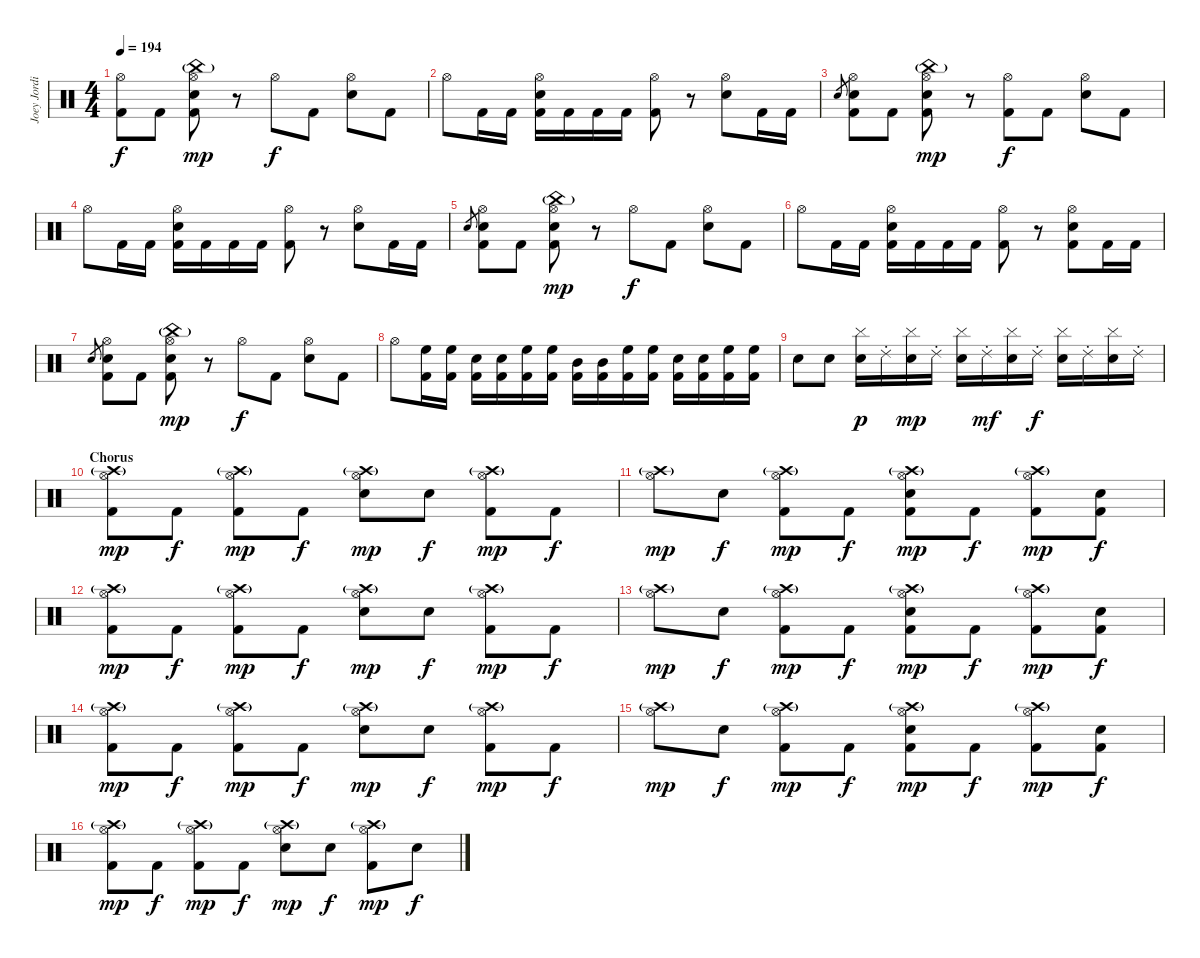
\track ("Joey Jordison" "Joey Jordi") {instrument percussion}
\staff {score}
\articulation defaults
\ts (4 4)
\tempo 194
\clef neutral
\ks c
("Hi-Hat (open)" "Kick (hit) 2").8{dy f} "Kick (hit) 2".8 ("Hi-Hat (open)" "China (hit)"{g} "Snare (hit) 2" "Kick (hit) 2").8{dy mp} r.8 "Hi-Hat (open)".8{dy f} "Kick (hit) 2".8 ("Hi-Hat (open)" "Snare (hit) 2").8 "Kick (hit) 2".8 |
"Hi-Hat (open)".8 "Kick (hit) 2".16 "Kick (hit) 2".16 ("Hi-Hat (open)" "Snare (hit) 2" "Kick (hit) 2").16 "Kick (hit) 2".16 "Kick (hit) 2".16 "Kick (hit) 2".16 ("Hi-Hat (open)" "Kick (hit) 2").8 r.8 ("Hi-Hat (open)" "Snare (hit) 2").8 "Kick (hit) 2".16 "Kick (hit) 2".16 |
"Snare (hit) 2".8{gr} ("Hi-Hat (open)" "Snare (hit)" "Kick (hit) 2").8 "Kick (hit) 2".8 ("Hi-Hat (open)" "China (hit)"{g} "Snare (hit) 2" "Kick (hit) 2").8{dy mp} r.8 ("Hi-Hat (open)" "Kick (hit) 2").8{dy f} "Kick (hit) 2".8 ("Hi-Hat (open)" "Snare (hit) 2").8 "Kick (hit) 2".8 |
"Hi-Hat (open)".8 "Kick (hit) 2".16 "Kick (hit) 2".16 ("Hi-Hat (open)" "Snare (hit) 2" "Kick (hit) 2").16 "Kick (hit) 2".16 "Kick (hit) 2".16 "Kick (hit) 2".16 ("Hi-Hat (open)" "Kick (hit) 2").8 r.8 ("Hi-Hat (open)" "Snare (hit) 2").8 "Kick (hit) 2".16 "Kick (hit) 2".16 |
"Snare (hit) 2".8{gr} ("Hi-Hat (open)" "Snare (hit)" "Kick (hit) 2").8 "Kick (hit) 2".8 ("Hi-Hat (open)" "China (hit)"{g} "Snare (hit) 2" "Kick (hit) 2").8{dy mp} r.8 "Hi-Hat (open)".8{dy f} "Kick (hit) 2".8 ("Hi-Hat (open)" "Snare (hit) 2").8 "Kick (hit) 2".8 |
"Hi-Hat (open)".8 "Kick (hit) 2".16 "Kick (hit) 2".16 ("Hi-Hat (open)" "Snare (hit) 2" "Kick (hit) 2").16 "Kick (hit) 2".16 "Kick (hit) 2".16 "Kick (hit) 2".16 ("Hi-Hat (open)" "Kick (hit) 2").8 r.8 ("Hi-Hat (open)" "Snare (hit) 2" "Kick (hit) 2").8 "Kick (hit) 2".16 "Kick (hit) 2".16 |
"Snare (hit) 2".8{gr} ("Hi-Hat (open)" "Snare (hit)" "Kick (hit) 2").8 "Kick (hit) 2".8 ("Hi-Hat (open)" "China (hit)"{g} "Snare (hit) 2" "Kick (hit) 2").8{dy mp} r.8 "Hi-Hat (open)".8{dy f} "Kick (hit) 2".8 ("Hi-Hat (open)" "Snare (hit) 2").8 "Kick (hit) 2".8 |
"Hi-Hat (open)".8 ("High Floor Tom (hit)" "Kick (hit) 2").16 ("High Floor Tom (hit)" "Kick (hit) 2").16 ("Snare (hit) 2" "Kick (hit) 2").16 ("Snare (hit) 2" "Kick (hit) 2").16 ("High Floor Tom (hit)" "Kick (hit) 2").16 ("High Floor Tom (hit)" "Kick (hit) 2").16 ("Mid Tom (hit)" "Kick (hit) 2").16 ("Mid Tom (hit)" "Kick (hit) 2").16 ("High Floor Tom (hit)" "Kick (hit) 2").16 ("High Floor Tom (hit)" "Kick (hit) 2").16 ("Snare (hit) 2" "Kick (hit) 2").16 ("Snare (hit) 2" "Kick (hit) 2").16 ("High Floor Tom (hit)" "Kick (hit) 2").16 ("High Floor Tom (hit)" "Kick (hit) 2").16 |
"Snare (hit) 2".8 "Snare (hit) 2".8 ("Cymbal (hit)" "Snare (hit) 2").16{dy p} "Ride (choke) 2".16 ("Cymbal (hit)" "Snare (hit) 2").16{dy mp} "Ride (choke) 2".16 ("Cymbal (hit)" "Snare (hit) 2").16 "Ride (choke) 2".16{dy mf} ("Cymbal (hit)" "Snare (hit) 2").16 "Ride (choke) 2".16{dy f} ("Cymbal (hit)" "Snare (hit) 2").16 "Ride (choke) 2".16 ("Cymbal (hit)" "Snare (hit) 2").16 "Ride (choke) 2".16 |
\section ("" "Chorus")
("Hi-Hat (open)" "Crash high (hit)"{g} "Kick (hit) 2").8{dy mp} "Kick (hit) 2".8{dy f} ("Hi-Hat (open)" "Crash high (hit)"{g} "Kick (hit) 2").8{dy mp} "Kick (hit) 2".8{dy f} ("Hi-Hat (open)" "Crash high (hit)"{g} "Snare (hit) 2").8{dy mp} "Snare (hit) 2".8{dy f} ("Hi-Hat (open)" "Crash high (hit)"{g} "Kick (hit) 2").8{dy mp} "Kick (hit) 2".8{dy f} |
("Hi-Hat (open)" "Crash high (hit)"{g}).8{dy mp} "Snare (hit) 2".8{dy f} ("Hi-Hat (open)" "Crash high (hit)"{g} "Kick (hit) 2").8{dy mp} "Kick (hit) 2".8{dy f} ("Hi-Hat (open)" "Crash high (hit)"{g} "Snare (hit) 2" "Kick (hit) 2").8{dy mp} "Kick (hit) 2".8{dy f} ("Hi-Hat (open)" "Crash high (hit)"{g} "Kick (hit) 2").8{dy mp} ("Snare (hit) 2" "Kick (hit) 2").8{dy f} |
("Hi-Hat (open)" "Crash high (hit)"{g} "Kick (hit) 2").8{dy mp} "Kick (hit) 2".8{dy f} ("Hi-Hat (open)" "Crash high (hit)"{g} "Kick (hit) 2").8{dy mp} "Kick (hit) 2".8{dy f} ("Hi-Hat (open)" "Crash high (hit)"{g} "Snare (hit) 2").8{dy mp} "Snare (hit) 2".8{dy f} ("Hi-Hat (open)" "Crash high (hit)"{g} "Kick (hit) 2").8{dy mp} "Kick (hit) 2".8{dy f} |
("Hi-Hat (open)" "Crash high (hit)"{g}).8{dy mp} "Snare (hit) 2".8{dy f} ("Hi-Hat (open)" "Crash high (hit)"{g} "Kick (hit) 2").8{dy mp} "Kick (hit) 2".8{dy f} ("Hi-Hat (open)" "Crash high (hit)"{g} "Snare (hit) 2" "Kick (hit) 2").8{dy mp} "Kick (hit) 2".8{dy f} ("Hi-Hat (open)" "Crash high (hit)"{g} "Kick (hit) 2").8{dy mp} ("Snare (hit) 2" "Kick (hit) 2").8{dy f} |
("Hi-Hat (open)" "Crash high (hit)"{g} "Kick (hit) 2").8{dy mp} "Kick (hit) 2".8{dy f} ("Hi-Hat (open)" "Crash high (hit)"{g} "Kick (hit) 2").8{dy mp} "Kick (hit) 2".8{dy f} ("Hi-Hat (open)" "Crash high (hit)"{g} "Snare (hit) 2").8{dy mp} "Snare (hit) 2".8{dy f} ("Hi-Hat (open)" "Crash high (hit)"{g} "Kick (hit) 2").8{dy mp} "Kick (hit) 2".8{dy f} |
("Hi-Hat (open)" "Crash high (hit)"{g}).8{dy mp} "Snare (hit) 2".8{dy f} ("Hi-Hat (open)" "Crash high (hit)"{g} "Kick (hit) 2").8{dy mp} "Kick (hit) 2".8{dy f} ("Hi-Hat (open)" "Crash high (hit)"{g} "Snare (hit) 2" "Kick (hit) 2").8{dy mp} "Kick (hit) 2".8{dy f} ("Hi-Hat (open)" "Crash high (hit)"{g} "Kick (hit) 2").8{dy mp} ("Snare (hit) 2" "Kick (hit) 2").8{dy f} |
("Hi-Hat (open)" "Crash high (hit)"{g} "Kick (hit) 2").8{dy mp} "Kick (hit) 2".8{dy f} ("Hi-Hat (open)" "Crash high (hit)"{g} "Kick (hit) 2").8{dy mp} "Kick (hit) 2".8{dy f} ("Hi-Hat (open)" "Crash high (hit)"{g} "Snare (hit) 2").8{dy mp} "Snare (hit) 2".8{dy f} ("Hi-Hat (open)" "Crash high (hit)"{g} "Kick (hit) 2").8{dy mp} "Snare (hit) 2".8{dy f}
